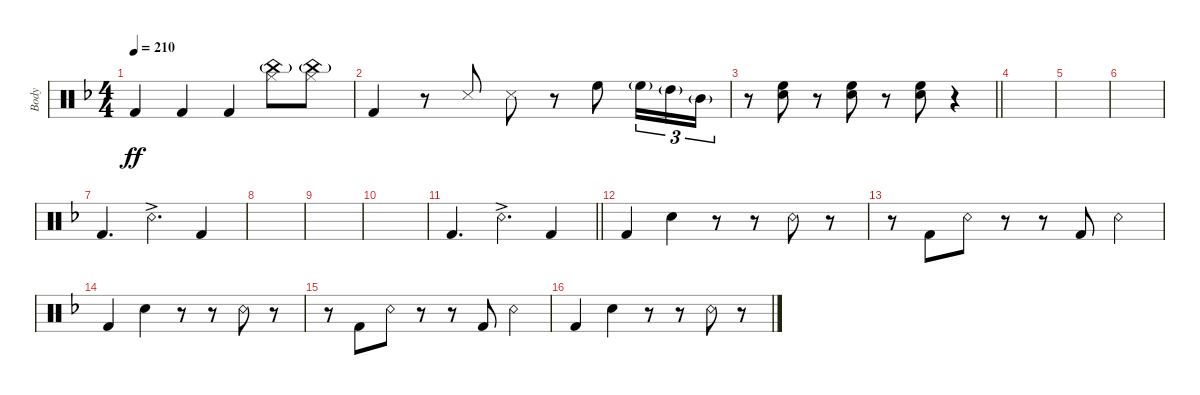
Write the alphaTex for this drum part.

\defaultSystemsLayout 2
\bracketExtendMode groupsimilarinstruments
\otherSystemsTrackNameOrientation horizontal
\track ("Body" "Body") {instrument percussion}
\staff {score}
\articulation defaults
\ts (4 4)
\scale
1.04787
\tempo 210
\accidentals auto
\clef neutral
\ottava regular
\simile none
\scale
0.333333
\ks dminor "Kick (hit) 2"{acc forcenatural}.4{dy ff beam Up} "Kick (hit) 2"{acc forcenatural}.4{beam Up} "Kick (hit) 2"{acc forcenatural}.4{beam Up}
("China (hit)"{g acc forcenatural} "Hi-Hat (closed)"{acc forcenatural}).8{beam Down} ("Hi-Hat (closed)"{acc forcenatural} "China (hit)"{g acc forcenatural}).8{beam Down} |
\scale
0.952125
\scale
0.333333 "Kick (hit) 2"{acc forcenatural}.4{beam Up} r.8{beam Up} "Snare (side stick) 3"{acc forcenatural}.8{beam Down} "Snare (side stick) 3"{acc forcenatural}.8{beam Down} r.8{beam Down} "High Floor Tom (hit)"{acc forcenatural}.8{beam Down} "High Floor Tom (hit)"{g acc forcenatural}.16{tu (3 2) beam Down} "High Tom (hit)"{g acc forcenatural}.16{tu (3 2) beam Down} "Mid Tom (hit)"{g acc forcenatural}.16{tu (3 2) beam Down} |
\scale
1.05255
\scale
0.333333
\barLineRight lightlight
r.8{beam Down} ("Snare (hit) 2"{acc forcenatural} "High Floor Tom (hit)"{acc forcenatural}).8{beam Down} r.8{beam Down} ("Snare (hit) 2"{acc forcenatural} "High Floor Tom (hit)"{acc forcenatural}).8{beam Down} r.8{beam Down} ("Snare (hit) 2"{acc forcenatural} "High Floor Tom (hit)"{acc forcenatural}).8{beam Down} r.4{beam Down} |
\beaming (8 2 3 3)
\scale
0.947446
\scale
0.333333 |
\scale
1.03952
\scale
0.333333 |
\scale
0.96048
\scale
0.333333 |
\beaming (8 3 3 2)
\scale
1.04787
\scale
0.333333 "Kick (hit) 2"{acc forcenatural}.4{d beam Up} "Snare (rim shot)"{ac acc forcenatural}.4{d beam Down} "Kick (hit) 2"{acc forcenatural}.4{beam Up} |
\scale
0.952125
\scale
0.333333 |
\scale
1.03952
\scale
0.333333 |
\scale
0.96048
\scale
0.333333 |
\scale
1.05255
\scale
0.333333
\barLineRight lightlight "Kick (hit) 2"{acc forcenatural}.4{d beam Up} "Snare (rim shot)"{ac acc forcenatural}.4{d beam Down} "Kick (hit) 2"{acc forcenatural}.4{beam Up}
|
\scale
0.947446
\scale
0.333333 "Kick (hit) 2"{acc forcenatural}.4{beam Up} "Snare (hit) 2"{acc forcenatural}.4{beam Down} r.8{beam Down} r.8{beam Down} "Snare (rim shot)"{acc forcenatural}.8{beam Down} r.8{beam Down} |
\scale
1.03751
\scale
0.333333 r.8{beam Down} "Kick (hit) 2"{acc forcenatural}.8{beam Up} "Snare (rim shot)"{acc forcenatural}.8{beam Up} r.8{beam Up} r.8{beam Up} "Kick (hit) 2"{acc forcenatural}.8{beam Up} "Snare (rim shot)"{acc forcenatural}.4{beam Down} |
\scale
0.962487
\scale
0.333333 "Kick (hit) 2"{acc forcenatural}.4{beam Up} "Snare (hit) 2"{acc forcenatural}.4{beam Down} r.8{beam Down} r.8{beam Down} "Snare (rim shot)"{acc forcenatural}.8{beam Down} r.8{beam Down} |
\scale
1.03751
\scale
0.333333 r.8{beam Down} "Kick (hit) 2"{acc forcenatural}.8{beam Up} "Snare (rim shot)"{acc forcenatural}.8{beam Up} r.8{beam Up} r.8{beam Up} "Kick (hit) 2"{acc forcenatural}.8{beam Up} "Snare (rim shot)"{acc forcenatural}.4{beam Down} |
\scale
0.962487
\scale
0.333333 "Kick (hit) 2"{acc forcenatural}.4{beam Up} "Snare (hit) 2"{acc forcenatural}.4{beam Down} r.8{beam Down} r.8{beam Down} "Snare (rim shot)"{acc forcenatural}.8{beam Down} r.8{beam Down}
